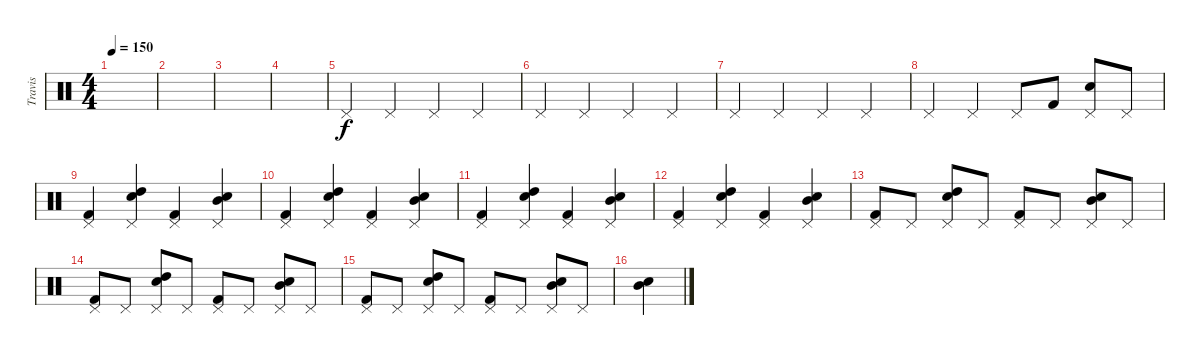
\track ("Travis" "Travis") {instrument percussion}
\staff {score}
\articulation defaults
\ts (4 4)
\tempo 150
\clef neutral
\ks c
|
|
|
|
"Pedal Hi-Hat (hit)".4 "Pedal Hi-Hat (hit)".4 "Pedal Hi-Hat (hit)".4 "Pedal Hi-Hat (hit)".4 |
"Pedal Hi-Hat (hit)".4 "Pedal Hi-Hat (hit)".4 "Pedal Hi-Hat (hit)".4 "Pedal Hi-Hat (hit)".4 |
"Pedal Hi-Hat (hit)".4 "Pedal Hi-Hat (hit)".4 "Pedal Hi-Hat (hit)".4 "Pedal Hi-Hat (hit)".4 |
"Pedal Hi-Hat (hit)".4 "Pedal Hi-Hat (hit)".4 "Pedal Hi-Hat (hit)".8 "Kick (hit) 2".8 ("Pedal Hi-Hat (hit)" "Electric Snare (hit)").8 "Pedal Hi-Hat (hit)".8 |
("Pedal Hi-Hat (hit)" "Kick (hit) 2").4 ("Pedal Hi-Hat (hit)" "Electric Snare (hit)" "High Tom (hit)").4 ("Pedal Hi-Hat (hit)" "Kick (hit) 2").4 ("Pedal Hi-Hat (hit)" "Electric Snare (hit)" "Mid Tom (hit)").4 |
("Pedal Hi-Hat (hit)" "Kick (hit) 2").4 ("Pedal Hi-Hat (hit)" "Electric Snare (hit)" "High Tom (hit)").4 ("Pedal Hi-Hat (hit)" "Kick (hit) 2").4 ("Pedal Hi-Hat (hit)" "Electric Snare (hit)" "Mid Tom (hit)").4 |
("Pedal Hi-Hat (hit)" "Kick (hit) 2").4 ("Pedal Hi-Hat (hit)" "Electric Snare (hit)" "High Tom (hit)").4 ("Pedal Hi-Hat (hit)" "Kick (hit) 2").4 ("Pedal Hi-Hat (hit)" "Electric Snare (hit)" "Mid Tom (hit)").4 |
("Pedal Hi-Hat (hit)" "Kick (hit) 2").4 ("Pedal Hi-Hat (hit)" "Electric Snare (hit)" "High Tom (hit)").4 ("Pedal Hi-Hat (hit)" "Kick (hit) 2").4 ("Pedal Hi-Hat (hit)" "Electric Snare (hit)" "Mid Tom (hit)").4 |
("Pedal Hi-Hat (hit)" "Kick (hit) 2").8 "Pedal Hi-Hat (hit)".8 ("Pedal Hi-Hat (hit)" "Electric Snare (hit)" "High Tom (hit)").8 "Pedal Hi-Hat (hit)".8 ("Pedal Hi-Hat (hit)" "Kick (hit) 2").8 "Pedal Hi-Hat (hit)".8 ("Pedal Hi-Hat (hit)" "Electric Snare (hit)" "Mid Tom (hit)").8 "Pedal Hi-Hat (hit)".8 |
("Pedal Hi-Hat (hit)" "Kick (hit) 2").8 "Pedal Hi-Hat (hit)".8 ("Pedal Hi-Hat (hit)" "Electric Snare (hit)" "High Tom (hit)").8 "Pedal Hi-Hat (hit)".8 ("Pedal Hi-Hat (hit)" "Kick (hit) 2").8 "Pedal Hi-Hat (hit)".8 ("Pedal Hi-Hat (hit)" "Electric Snare (hit)" "Mid Tom (hit)").8 "Pedal Hi-Hat (hit)".8 |
("Pedal Hi-Hat (hit)" "Kick (hit) 2").8 "Pedal Hi-Hat (hit)".8 ("Pedal Hi-Hat (hit)" "Electric Snare (hit)" "High Tom (hit)").8 "Pedal Hi-Hat (hit)".8 ("Pedal Hi-Hat (hit)" "Kick (hit) 2").8 "Pedal Hi-Hat (hit)".8 ("Pedal Hi-Hat (hit)" "Electric Snare (hit)" "Mid Tom (hit)").8 "Pedal Hi-Hat (hit)".8 |
("Electric Snare (hit)" "Mid Tom (hit)").4
